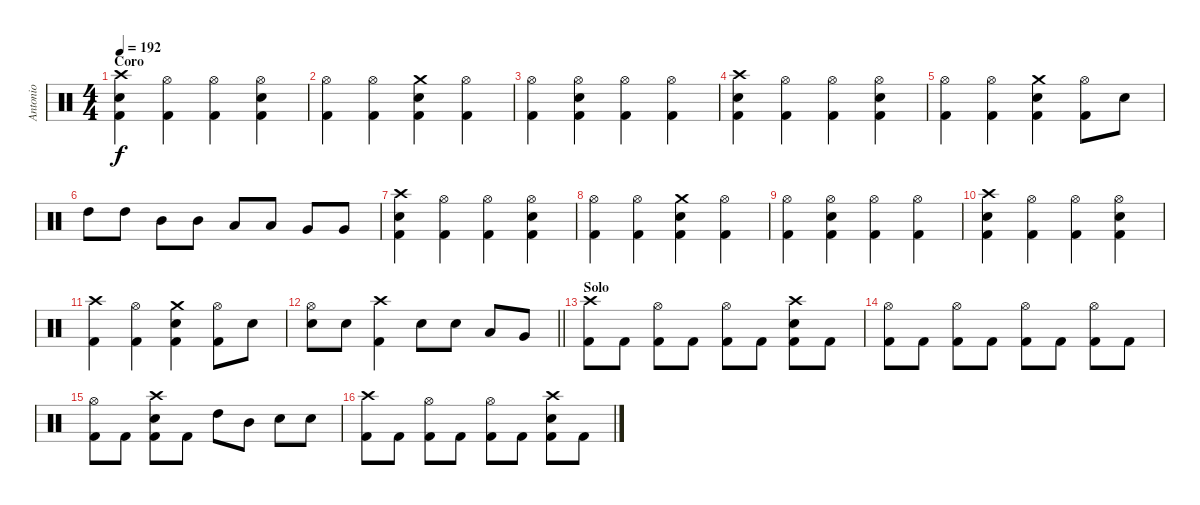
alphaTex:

\track ("Antonio" "Antonio") {instrument percussion}
\staff {score}
\articulation defaults
\ts (4 4)
\section ("" "Coro")
\tempo 192
\clef neutral
\ks c
("Crash high (hit)" "Electric Snare (hit)" "Kick (hit) 2").4{dy f} ("Hi-Hat (open)" "Kick (hit) 2").4 ("Hi-Hat (open)" "Kick (hit) 2").4 ("Hi-Hat (open)" "Electric Snare (hit)" "Kick (hit) 2").4 |
("Hi-Hat (open)" "Kick (hit) 2").4 ("Hi-Hat (open)" "Kick (hit) 2").4 ("Crash medium (hit)" "Electric Snare (hit)" "Kick (hit) 2").4 ("Hi-Hat (open)" "Kick (hit) 2").4 |
("Hi-Hat (open)" "Kick (hit) 2").4 ("Hi-Hat (open)" "Electric Snare (hit)" "Kick (hit) 2").4 ("Hi-Hat (open)" "Kick (hit) 2").4 ("Hi-Hat (open)" "Kick (hit) 2").4 |
("Crash high (hit)" "Electric Snare (hit)" "Kick (hit) 2").4 ("Hi-Hat (open)" "Kick (hit) 2").4 ("Hi-Hat (open)" "Kick (hit) 2").4 ("Hi-Hat (open)" "Electric Snare (hit)" "Kick (hit) 2").4 |
("Hi-Hat (open)" "Kick (hit) 2").4 ("Hi-Hat (open)" "Kick (hit) 2").4 ("Crash medium (hit)" "Electric Snare (hit)" "Kick (hit) 2").4 ("Hi-Hat (open)" "Kick (hit) 2").8 "Electric Snare (hit)".8 |
"High Tom (hit)".8 "High Tom (hit)".8 "Mid Tom (hit)".8 "Mid Tom (hit)".8 "Low Tom (hit)".8 "Low Tom (hit)".8 "Very Low Tom (hit)".8 "Very Low Tom (hit)".8 |
("Crash high (hit)" "Electric Snare (hit)" "Kick (hit) 2").4 ("Hi-Hat (open)" "Kick (hit) 2").4 ("Hi-Hat (open)" "Kick (hit) 2").4 ("Hi-Hat (open)" "Electric Snare (hit)" "Kick (hit) 2").4 |
("Hi-Hat (open)" "Kick (hit) 2").4 ("Hi-Hat (open)" "Kick (hit) 2").4 ("Crash medium (hit)" "Electric Snare (hit)" "Kick (hit) 2").4 ("Hi-Hat (open)" "Kick (hit) 2").4 |
("Hi-Hat (open)" "Kick (hit) 2").4 ("Hi-Hat (open)" "Electric Snare (hit)" "Kick (hit) 2").4 ("Hi-Hat (open)" "Kick (hit) 2").4 ("Hi-Hat (open)" "Kick (hit) 2").4 |
("Crash high (hit)" "Electric Snare (hit)" "Kick (hit) 2").4 ("Hi-Hat (open)" "Kick (hit) 2").4 ("Hi-Hat (open)" "Kick (hit) 2").4 ("Hi-Hat (open)" "Electric Snare (hit)" "Kick (hit) 2").4 |
("Crash high (hit)" "Kick (hit) 2").4 ("Hi-Hat (open)" "Kick (hit) 2").4 ("Crash medium (hit)" "Electric Snare (hit)" "Kick (hit) 2").4 ("Hi-Hat (open)" "Kick (hit) 2").8 "Electric Snare (hit)".8 |
\barLineRight lightlight
("Hi-Hat (open)" "Electric Snare (hit)").8 "Electric Snare (hit)".8 ("Crash high (hit)" "Kick (hit) 2").4 "Electric Snare (hit)".8 "Electric Snare (hit)".8 "Low Tom (hit)".8 "Very Low Tom (hit)".8 |
\section ("" "Solo")
("Crash high (hit)" "Kick (hit) 2").8 "Kick (hit) 2".8 ("Hi-Hat (open)" "Kick (hit) 2").8 "Kick (hit) 2".8 ("Hi-Hat (open)" "Kick (hit) 2").8 "Kick (hit) 2".8 ("Crash high (hit)" "Electric Snare (hit)" "Kick (hit) 2").8 "Kick (hit) 2".8 |
("Hi-Hat (open)" "Kick (hit) 2").8 "Kick (hit) 2".8 ("Hi-Hat (open)" "Kick (hit) 2").8 "Kick (hit) 2".8 ("Hi-Hat (open)" "Kick (hit) 2").8 "Kick (hit) 2".8 ("Hi-Hat (open)" "Kick (hit) 2").8 "Kick (hit) 2".8 |
("Hi-Hat (open)" "Kick (hit) 2").8 "Kick (hit) 2".8 ("Crash high (hit)" "Electric Snare (hit)" "Kick (hit) 2").8 "Kick (hit) 2".8 "High Tom (hit)".8 "Mid Tom (hit)".8 "Electric Snare (hit)".8 "Electric Snare (hit)".8 |
("Crash high (hit)" "Kick (hit) 2").8 "Kick (hit) 2".8 ("Hi-Hat (open)" "Kick (hit) 2").8 "Kick (hit) 2".8 ("Hi-Hat (open)" "Kick (hit) 2").8 "Kick (hit) 2".8 ("Crash high (hit)" "Electric Snare (hit)" "Kick (hit) 2").8 "Kick (hit) 2".8
